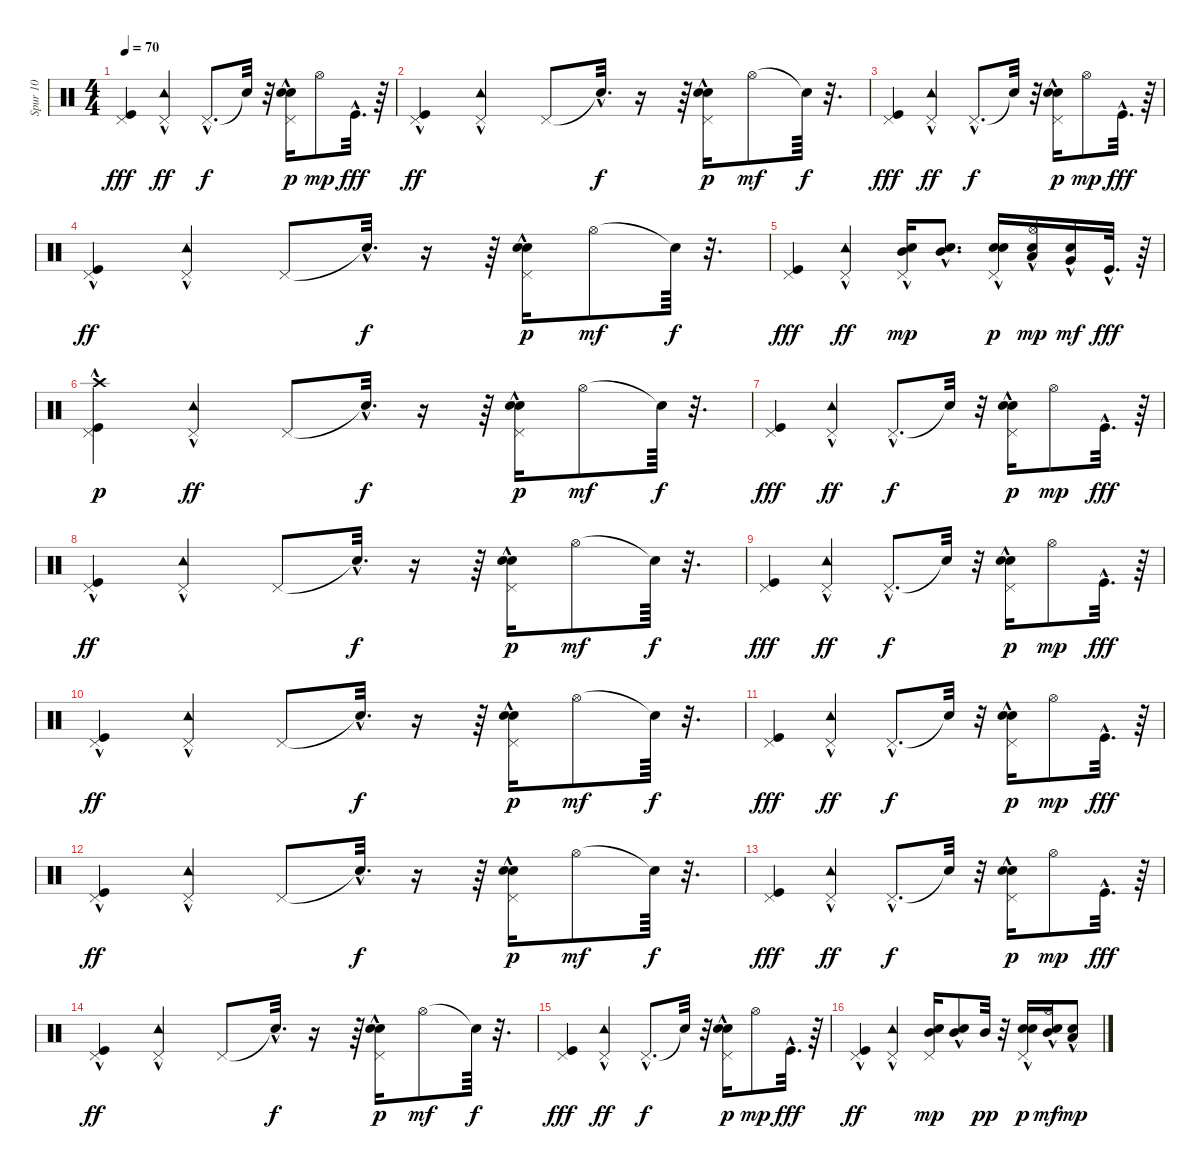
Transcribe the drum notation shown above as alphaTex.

\track ("Spur 10" "Spur 10") {instrument percussion}
\staff {score}
\articulation defaults
\ts (4 4)
\tempo 70
\clef neutral
\ks c
("Kick (hit)" "Pedal Hi-Hat (hit)").4{dy fff} ("Pedal Hi-Hat (hit)"{hac} "Tambourine (hit)").4{dy ff} "Pedal Hi-Hat (hit)"{hac}.8{d dy f} "Snare (hit)"{t}.32 r.32 ("Pedal Hi-Hat (hit)"{hac} "Snare (hit) 2" "Electric Snare (hit)").16{dy p} "Hi-Hat (open)".8{dy mp} "Kick (hit)"{hac}.32{d dy fff} r.64 |
("Kick (hit)" "Pedal Hi-Hat (hit)"{hac}).4{dy ff} ("Tambourine (hit)" "Pedal Hi-Hat (hit)"{hac}).4 "Pedal Hi-Hat (hit)".8 "Snare (hit)"{hac t}.32{d dy f} r.16 r.64 ("Pedal Hi-Hat (hit)"{hac} "Electric Snare (hit)" "Snare (hit) 2"{hac}).16{dy p} "Hi-Hat (open)".8{dy mf} "Snare (hit)"{t}.64{dy f} r.32{d} |
("Kick (hit)" "Pedal Hi-Hat (hit)").4{dy fff} ("Pedal Hi-Hat (hit)"{hac} "Tambourine (hit)").4{dy ff} "Pedal Hi-Hat (hit)"{hac}.8{d dy f} "Snare (hit)"{t}.32 r.32 ("Pedal Hi-Hat (hit)"{hac} "Snare (hit) 2" "Electric Snare (hit)").16{dy p} "Hi-Hat (open)".8{dy mp} "Kick (hit)"{hac}.32{d dy fff} r.64 |
("Kick (hit)" "Pedal Hi-Hat (hit)"{hac}).4{dy ff} ("Tambourine (hit)" "Pedal Hi-Hat (hit)"{hac}).4 "Pedal Hi-Hat (hit)".8 "Snare (hit)"{hac t}.32{d dy f} r.16 r.64 ("Pedal Hi-Hat (hit)"{hac} "Electric Snare (hit)" "Snare (hit) 2"{hac}).16{dy p} "Hi-Hat (open)".8{dy mf} "Snare (hit)"{t}.64{dy f} r.32{d} |
("Kick (hit)" "Pedal Hi-Hat (hit)").4{dy fff} ("Pedal Hi-Hat (hit)"{hac} "Tambourine (hit)").4{dy ff} ("Pedal Hi-Hat (hit)"{hac} "Mid Tom (hit)"{hac} "Electric Snare (hit)").16{dy mp} ("Mid Tom (hit)"{hac} "Electric Snare (hit)"{hac}).8{d} ("Pedal Hi-Hat (hit)"{hac} "Snare (hit) 2" "Electric Snare (hit)").16{dy p} ("Hi-Hat (open)" "Electric Snare (hit)" "Low Tom (hit)"{hac}).16{dy mp} ("Electric Snare (hit)" "Very Low Tom (hit)"{hac}).16{dy mf} "Kick (hit)"{hac}.32{d dy fff} r.64 |
("Kick (hit)" "Pedal Hi-Hat (hit)"{hac} "Crash high (hit)").4{dy p} ("Tambourine (hit)" "Pedal Hi-Hat (hit)"{hac}).4{dy ff} "Pedal Hi-Hat (hit)".8 "Snare (hit)"{hac t}.32{d dy f} r.16 r.64 ("Pedal Hi-Hat (hit)"{hac} "Electric Snare (hit)" "Snare (hit) 2"{hac}).16{dy p} "Hi-Hat (open)".8{dy mf} "Snare (hit)"{t}.64{dy f} r.32{d} |
("Kick (hit)" "Pedal Hi-Hat (hit)").4{dy fff} ("Pedal Hi-Hat (hit)"{hac} "Tambourine (hit)").4{dy ff} "Pedal Hi-Hat (hit)"{hac}.8{d dy f} "Snare (hit)"{t}.32 r.32 ("Pedal Hi-Hat (hit)"{hac} "Snare (hit) 2" "Electric Snare (hit)").16{dy p} "Hi-Hat (open)".8{dy mp} "Kick (hit)"{hac}.32{d dy fff} r.64 |
("Kick (hit)" "Pedal Hi-Hat (hit)"{hac}).4{dy ff} ("Tambourine (hit)" "Pedal Hi-Hat (hit)"{hac}).4 "Pedal Hi-Hat (hit)".8 "Snare (hit)"{hac t}.32{d dy f} r.16 r.64 ("Pedal Hi-Hat (hit)"{hac} "Electric Snare (hit)" "Snare (hit) 2"{hac}).16{dy p} "Hi-Hat (open)".8{dy mf} "Snare (hit)"{t}.64{dy f} r.32{d} |
("Kick (hit)" "Pedal Hi-Hat (hit)").4{dy fff} ("Pedal Hi-Hat (hit)"{hac} "Tambourine (hit)").4{dy ff} "Pedal Hi-Hat (hit)"{hac}.8{d dy f} "Snare (hit)"{t}.32 r.32 ("Pedal Hi-Hat (hit)"{hac} "Snare (hit) 2" "Electric Snare (hit)").16{dy p} "Hi-Hat (open)".8{dy mp} "Kick (hit)"{hac}.32{d dy fff} r.64 |
("Kick (hit)" "Pedal Hi-Hat (hit)"{hac}).4{dy ff} ("Tambourine (hit)" "Pedal Hi-Hat (hit)"{hac}).4 "Pedal Hi-Hat (hit)".8 "Snare (hit)"{hac t}.32{d dy f} r.16 r.64 ("Pedal Hi-Hat (hit)"{hac} "Electric Snare (hit)" "Snare (hit) 2"{hac}).16{dy p} "Hi-Hat (open)".8{dy mf} "Snare (hit)"{t}.64{dy f} r.32{d} |
("Kick (hit)" "Pedal Hi-Hat (hit)").4{dy fff} ("Pedal Hi-Hat (hit)"{hac} "Tambourine (hit)").4{dy ff} "Pedal Hi-Hat (hit)"{hac}.8{d dy f} "Snare (hit)"{t}.32 r.32 ("Pedal Hi-Hat (hit)"{hac} "Snare (hit) 2" "Electric Snare (hit)").16{dy p} "Hi-Hat (open)".8{dy mp} "Kick (hit)"{hac}.32{d dy fff} r.64 |
("Kick (hit)" "Pedal Hi-Hat (hit)"{hac}).4{dy ff} ("Tambourine (hit)" "Pedal Hi-Hat (hit)"{hac}).4 "Pedal Hi-Hat (hit)".8 "Snare (hit)"{hac t}.32{d dy f} r.16 r.64 ("Pedal Hi-Hat (hit)"{hac} "Electric Snare (hit)" "Snare (hit) 2"{hac}).16{dy p} "Hi-Hat (open)".8{dy mf} "Snare (hit)"{t}.64{dy f} r.32{d} |
("Kick (hit)" "Pedal Hi-Hat (hit)").4{dy fff} ("Pedal Hi-Hat (hit)"{hac} "Tambourine (hit)").4{dy ff} "Pedal Hi-Hat (hit)"{hac}.8{d dy f} "Snare (hit)"{t}.32 r.32 ("Pedal Hi-Hat (hit)"{hac} "Snare (hit) 2" "Electric Snare (hit)").16{dy p} "Hi-Hat (open)".8{dy mp} "Kick (hit)"{hac}.32{d dy fff} r.64 |
("Kick (hit)" "Pedal Hi-Hat (hit)"{hac}).4{dy ff} ("Tambourine (hit)" "Pedal Hi-Hat (hit)"{hac}).4 "Pedal Hi-Hat (hit)".8 "Snare (hit)"{hac t}.32{d dy f} r.16 r.64 ("Pedal Hi-Hat (hit)"{hac} "Electric Snare (hit)" "Snare (hit) 2"{hac}).16{dy p} "Hi-Hat (open)".8{dy mf} "Snare (hit)"{t}.64{dy f} r.32{d} |
("Kick (hit)" "Pedal Hi-Hat (hit)").4{dy fff} ("Pedal Hi-Hat (hit)"{hac} "Tambourine (hit)").4{dy ff} "Pedal Hi-Hat (hit)"{hac}.8{d dy f} "Snare (hit)"{t}.32 r.32 ("Pedal Hi-Hat (hit)"{hac} "Snare (hit) 2" "Electric Snare (hit)").16{dy p} "Hi-Hat (open)".8{dy mp} "Kick (hit)"{hac}.32{d dy fff} r.64 |
("Kick (hit)" "Pedal Hi-Hat (hit)"{hac}).4{dy ff} ("Tambourine (hit)" "Pedal Hi-Hat (hit)"{hac}).4 ("Pedal Hi-Hat (hit)" "Mid Tom (hit)" "Electric Snare (hit)").16{dy mp} ("Electric Snare (hit)"{hac} "Mid Tom (hit)").8 "Mid Tom (hit)".32{dy pp} r.32 ("Pedal Hi-Hat (hit)"{hac} "Electric Snare (hit)" "Snare (hit) 2"{hac}).16{dy p} ("Mid Tom (hit)"{hac} "Electric Snare (hit)" "Hi-Hat (open)").16{dy mf} ("Low Tom (hit)"{hac} "Electric Snare (hit)").8{dy mp}
